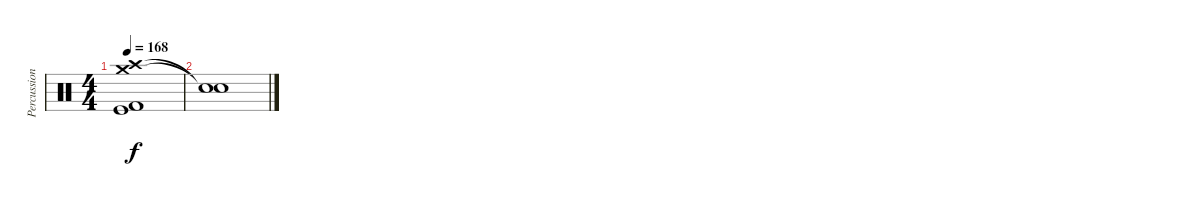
\track ("Percussion" "Percussion") {instrument percussion}
\staff {score}
\articulation defaults
\ts (4 4)
\tempo 168
\clef neutral
\ks c
("Crash high (hit)" "Crash medium (hit)" "Kick (hit)" "Kick (hit) 2").1{dy f} |
("Snare (hit)"{t} "Snare (hit)"{t}).1
